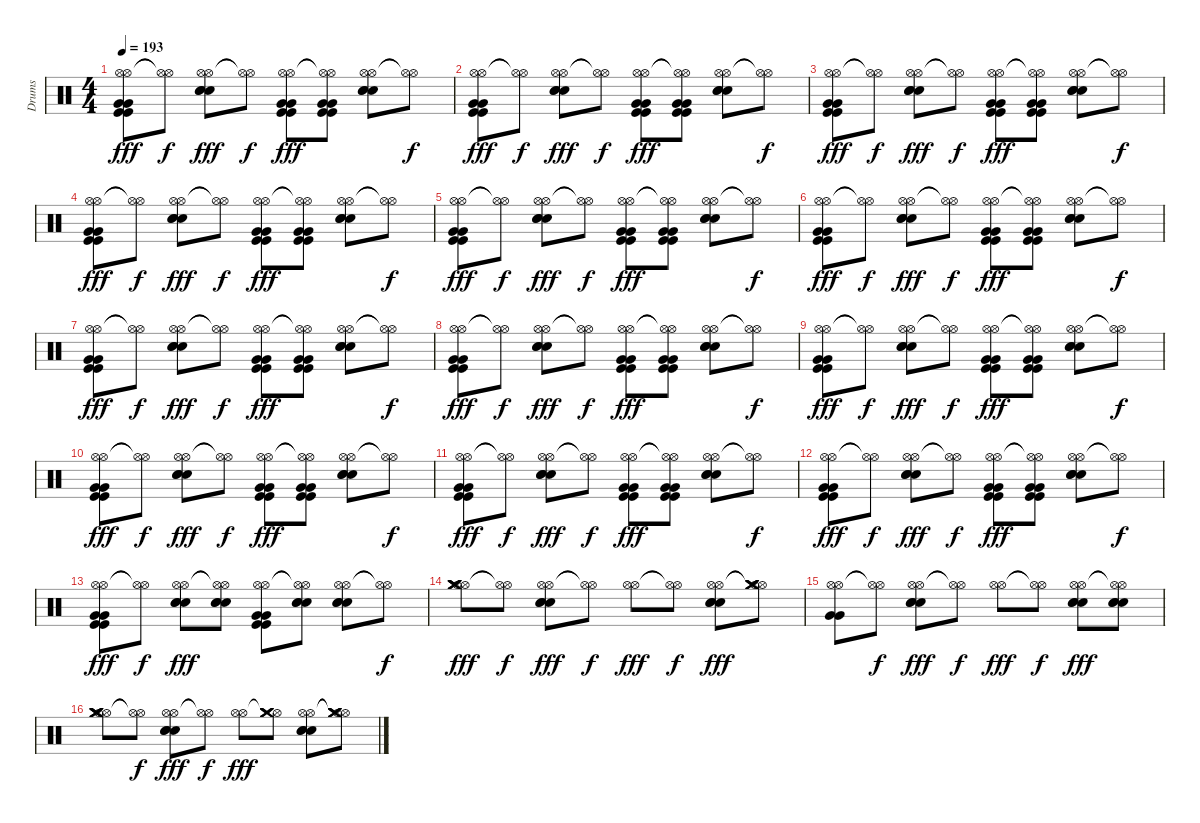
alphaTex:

\track ("Drums" "Drums") {instrument percussion}
\staff {score}
\articulation defaults
\ts (4 4)
\tempo 193
\clef neutral
\ks c
("Hi-Hat (open)" "Hi-Hat (open)" "Kick (hit)" "Kick (hit)" "Very Low Tom (hit)" "Very Low Tom (hit)").8{dy fff} ("Hi-Hat (open)"{t} "Hi-Hat (open)"{t}).8{dy f} ("Hi-Hat (open)" "Hi-Hat (open)" "Snare (hit) 2" "Snare (hit) 2" "Snare (hit) 2").8{dy fff} ("Hi-Hat (open)"{t} "Hi-Hat (open)"{t}).8{dy f} ("Hi-Hat (open)" "Hi-Hat (open)" "Kick (hit)" "Kick (hit)" "Very Low Tom (hit)" "Very Low Tom (hit)").8{dy fff} ("Hi-Hat (open)"{t} "Hi-Hat (open)"{t} "Kick (hit)" "Kick (hit)" "Very Low Tom (hit)" "Very Low Tom (hit)").8 ("Hi-Hat (open)" "Hi-Hat (open)" "Snare (hit) 2" "Snare (hit) 2" "Snare (hit) 2").8 ("Hi-Hat (open)"{t} "Hi-Hat (open)"{t}).8{dy f} |
("Hi-Hat (open)" "Hi-Hat (open)" "Kick (hit)" "Kick (hit)" "Very Low Tom (hit)" "Very Low Tom (hit)").8{dy fff} ("Hi-Hat (open)"{t} "Hi-Hat (open)"{t}).8{dy f} ("Hi-Hat (open)" "Hi-Hat (open)" "Snare (hit) 2" "Snare (hit) 2" "Snare (hit) 2").8{dy fff} ("Hi-Hat (open)"{t} "Hi-Hat (open)"{t}).8{dy f} ("Hi-Hat (open)" "Hi-Hat (open)" "Kick (hit)" "Kick (hit)" "Very Low Tom (hit)" "Very Low Tom (hit)").8{dy fff} ("Hi-Hat (open)"{t} "Hi-Hat (open)"{t} "Kick (hit)" "Kick (hit)" "Very Low Tom (hit)" "Very Low Tom (hit)").8 ("Hi-Hat (open)" "Hi-Hat (open)" "Snare (hit) 2" "Snare (hit) 2" "Snare (hit) 2").8 ("Hi-Hat (open)"{t} "Hi-Hat (open)"{t}).8{dy f} |
("Hi-Hat (open)" "Hi-Hat (open)" "Kick (hit)" "Kick (hit)" "Very Low Tom (hit)" "Very Low Tom (hit)").8{dy fff} ("Hi-Hat (open)"{t} "Hi-Hat (open)"{t}).8{dy f} ("Hi-Hat (open)" "Hi-Hat (open)" "Snare (hit) 2" "Snare (hit) 2" "Snare (hit) 2").8{dy fff} ("Hi-Hat (open)"{t} "Hi-Hat (open)"{t}).8{dy f} ("Hi-Hat (open)" "Hi-Hat (open)" "Kick (hit)" "Kick (hit)" "Very Low Tom (hit)" "Very Low Tom (hit)").8{dy fff} ("Hi-Hat (open)"{t} "Hi-Hat (open)"{t} "Kick (hit)" "Kick (hit)" "Very Low Tom (hit)" "Very Low Tom (hit)").8 ("Hi-Hat (open)" "Hi-Hat (open)" "Snare (hit) 2" "Snare (hit) 2" "Snare (hit) 2").8 ("Hi-Hat (open)"{t} "Hi-Hat (open)"{t}).8{dy f} |
("Hi-Hat (open)" "Hi-Hat (open)" "Kick (hit)" "Kick (hit)" "Very Low Tom (hit)" "Very Low Tom (hit)").8{dy fff} ("Hi-Hat (open)"{t} "Hi-Hat (open)"{t}).8{dy f} ("Hi-Hat (open)" "Hi-Hat (open)" "Snare (hit) 2" "Snare (hit) 2" "Snare (hit) 2").8{dy fff} ("Hi-Hat (open)"{t} "Hi-Hat (open)"{t}).8{dy f} ("Hi-Hat (open)" "Hi-Hat (open)" "Kick (hit)" "Kick (hit)" "Very Low Tom (hit)" "Very Low Tom (hit)").8{dy fff} ("Hi-Hat (open)"{t} "Hi-Hat (open)"{t} "Kick (hit)" "Kick (hit)" "Very Low Tom (hit)" "Very Low Tom (hit)").8 ("Hi-Hat (open)" "Hi-Hat (open)" "Snare (hit) 2" "Snare (hit) 2" "Snare (hit) 2").8 ("Hi-Hat (open)"{t} "Hi-Hat (open)"{t}).8{dy f} |
("Hi-Hat (open)" "Hi-Hat (open)" "Kick (hit)" "Kick (hit)" "Very Low Tom (hit)" "Very Low Tom (hit)").8{dy fff} ("Hi-Hat (open)"{t} "Hi-Hat (open)"{t}).8{dy f} ("Hi-Hat (open)" "Hi-Hat (open)" "Snare (hit) 2" "Snare (hit) 2" "Snare (hit) 2").8{dy fff} ("Hi-Hat (open)"{t} "Hi-Hat (open)"{t}).8{dy f} ("Hi-Hat (open)" "Hi-Hat (open)" "Kick (hit)" "Kick (hit)" "Very Low Tom (hit)" "Very Low Tom (hit)").8{dy fff} ("Hi-Hat (open)"{t} "Hi-Hat (open)"{t} "Kick (hit)" "Kick (hit)" "Very Low Tom (hit)" "Very Low Tom (hit)").8 ("Hi-Hat (open)" "Hi-Hat (open)" "Snare (hit) 2" "Snare (hit) 2" "Snare (hit) 2").8 ("Hi-Hat (open)"{t} "Hi-Hat (open)"{t}).8{dy f} |
("Hi-Hat (open)" "Hi-Hat (open)" "Kick (hit)" "Kick (hit)" "Very Low Tom (hit)" "Very Low Tom (hit)").8{dy fff} ("Hi-Hat (open)"{t} "Hi-Hat (open)"{t}).8{dy f} ("Hi-Hat (open)" "Hi-Hat (open)" "Snare (hit) 2" "Snare (hit) 2" "Snare (hit) 2").8{dy fff} ("Hi-Hat (open)"{t} "Hi-Hat (open)"{t}).8{dy f} ("Hi-Hat (open)" "Hi-Hat (open)" "Kick (hit)" "Kick (hit)" "Very Low Tom (hit)" "Very Low Tom (hit)").8{dy fff} ("Hi-Hat (open)"{t} "Hi-Hat (open)"{t} "Kick (hit)" "Kick (hit)" "Very Low Tom (hit)" "Very Low Tom (hit)").8 ("Hi-Hat (open)" "Hi-Hat (open)" "Snare (hit) 2" "Snare (hit) 2" "Snare (hit) 2").8 ("Hi-Hat (open)"{t} "Hi-Hat (open)"{t}).8{dy f} |
("Hi-Hat (open)" "Hi-Hat (open)" "Kick (hit)" "Kick (hit)" "Very Low Tom (hit)" "Very Low Tom (hit)").8{dy fff} ("Hi-Hat (open)"{t} "Hi-Hat (open)"{t}).8{dy f} ("Hi-Hat (open)" "Hi-Hat (open)" "Snare (hit) 2" "Snare (hit) 2" "Snare (hit) 2").8{dy fff} ("Hi-Hat (open)"{t} "Hi-Hat (open)"{t}).8{dy f} ("Hi-Hat (open)" "Hi-Hat (open)" "Kick (hit)" "Kick (hit)" "Very Low Tom (hit)" "Very Low Tom (hit)").8{dy fff} ("Hi-Hat (open)"{t} "Hi-Hat (open)"{t} "Kick (hit)" "Kick (hit)" "Very Low Tom (hit)" "Very Low Tom (hit)").8 ("Hi-Hat (open)" "Hi-Hat (open)" "Snare (hit) 2" "Snare (hit) 2" "Snare (hit) 2").8 ("Hi-Hat (open)"{t} "Hi-Hat (open)"{t}).8{dy f} |
("Hi-Hat (open)" "Hi-Hat (open)" "Kick (hit)" "Kick (hit)" "Very Low Tom (hit)" "Very Low Tom (hit)").8{dy fff} ("Hi-Hat (open)"{t} "Hi-Hat (open)"{t}).8{dy f} ("Hi-Hat (open)" "Hi-Hat (open)" "Snare (hit) 2" "Snare (hit) 2" "Snare (hit) 2").8{dy fff} ("Hi-Hat (open)"{t} "Hi-Hat (open)"{t}).8{dy f} ("Hi-Hat (open)" "Hi-Hat (open)" "Kick (hit)" "Kick (hit)" "Very Low Tom (hit)" "Very Low Tom (hit)").8{dy fff} ("Hi-Hat (open)"{t} "Hi-Hat (open)"{t} "Kick (hit)" "Kick (hit)" "Very Low Tom (hit)" "Very Low Tom (hit)").8 ("Hi-Hat (open)" "Hi-Hat (open)" "Snare (hit) 2" "Snare (hit) 2" "Snare (hit) 2").8 ("Hi-Hat (open)"{t} "Hi-Hat (open)"{t}).8{dy f} |
("Hi-Hat (open)" "Hi-Hat (open)" "Kick (hit)" "Kick (hit)" "Very Low Tom (hit)" "Very Low Tom (hit)").8{dy fff} ("Hi-Hat (open)"{t} "Hi-Hat (open)"{t}).8{dy f} ("Hi-Hat (open)" "Hi-Hat (open)" "Snare (hit) 2" "Snare (hit) 2" "Snare (hit) 2").8{dy fff} ("Hi-Hat (open)"{t} "Hi-Hat (open)"{t}).8{dy f} ("Hi-Hat (open)" "Hi-Hat (open)" "Kick (hit)" "Kick (hit)" "Very Low Tom (hit)" "Very Low Tom (hit)").8{dy fff} ("Hi-Hat (open)"{t} "Hi-Hat (open)"{t} "Kick (hit)" "Kick (hit)" "Very Low Tom (hit)" "Very Low Tom (hit)").8 ("Hi-Hat (open)" "Hi-Hat (open)" "Snare (hit) 2" "Snare (hit) 2" "Snare (hit) 2").8 ("Hi-Hat (open)"{t} "Hi-Hat (open)"{t}).8{dy f} |
("Hi-Hat (open)" "Hi-Hat (open)" "Kick (hit)" "Kick (hit)" "Very Low Tom (hit)" "Very Low Tom (hit)").8{dy fff} ("Hi-Hat (open)"{t} "Hi-Hat (open)"{t}).8{dy f} ("Hi-Hat (open)" "Hi-Hat (open)" "Snare (hit) 2" "Snare (hit) 2" "Snare (hit) 2").8{dy fff} ("Hi-Hat (open)"{t} "Hi-Hat (open)"{t}).8{dy f} ("Hi-Hat (open)" "Hi-Hat (open)" "Kick (hit)" "Kick (hit)" "Very Low Tom (hit)" "Very Low Tom (hit)").8{dy fff} ("Hi-Hat (open)"{t} "Hi-Hat (open)"{t} "Kick (hit)" "Kick (hit)" "Very Low Tom (hit)" "Very Low Tom (hit)").8 ("Hi-Hat (open)" "Hi-Hat (open)" "Snare (hit) 2" "Snare (hit) 2" "Snare (hit) 2").8 ("Hi-Hat (open)"{t} "Hi-Hat (open)"{t}).8{dy f} |
("Hi-Hat (open)" "Hi-Hat (open)" "Kick (hit)" "Kick (hit)" "Very Low Tom (hit)" "Very Low Tom (hit)").8{dy fff} ("Hi-Hat (open)"{t} "Hi-Hat (open)"{t}).8{dy f} ("Hi-Hat (open)" "Hi-Hat (open)" "Snare (hit) 2" "Snare (hit) 2" "Snare (hit) 2").8{dy fff} ("Hi-Hat (open)"{t} "Hi-Hat (open)"{t}).8{dy f} ("Hi-Hat (open)" "Hi-Hat (open)" "Kick (hit)" "Kick (hit)" "Very Low Tom (hit)" "Very Low Tom (hit)").8{dy fff} ("Hi-Hat (open)"{t} "Hi-Hat (open)"{t} "Kick (hit)" "Kick (hit)" "Very Low Tom (hit)" "Very Low Tom (hit)").8 ("Hi-Hat (open)" "Hi-Hat (open)" "Snare (hit) 2" "Snare (hit) 2" "Snare (hit) 2").8 ("Hi-Hat (open)"{t} "Hi-Hat (open)"{t}).8{dy f} |
("Hi-Hat (open)" "Hi-Hat (open)" "Kick (hit)" "Kick (hit)" "Very Low Tom (hit)" "Very Low Tom (hit)").8{dy fff} ("Hi-Hat (open)"{t} "Hi-Hat (open)"{t}).8{dy f} ("Hi-Hat (open)" "Hi-Hat (open)" "Snare (hit) 2" "Snare (hit) 2" "Snare (hit) 2").8{dy fff} ("Hi-Hat (open)"{t} "Hi-Hat (open)"{t}).8{dy f} ("Hi-Hat (open)" "Hi-Hat (open)" "Kick (hit)" "Kick (hit)" "Very Low Tom (hit)" "Very Low Tom (hit)").8{dy fff} ("Hi-Hat (open)"{t} "Hi-Hat (open)"{t} "Kick (hit)" "Kick (hit)" "Very Low Tom (hit)" "Very Low Tom (hit)").8 ("Hi-Hat (open)" "Hi-Hat (open)" "Snare (hit) 2" "Snare (hit) 2" "Snare (hit) 2").8 ("Hi-Hat (open)"{t} "Hi-Hat (open)"{t}).8{dy f} |
("Hi-Hat (open)" "Hi-Hat (open)" "Kick (hit)" "Kick (hit)" "Very Low Tom (hit)" "Very Low Tom (hit)").8{dy fff} ("Hi-Hat (open)"{t} "Hi-Hat (open)"{t}).8{dy f} ("Hi-Hat (open)" "Hi-Hat (open)" "Snare (hit) 2" "Snare (hit) 2" "Snare (hit) 2").8{dy fff} ("Hi-Hat (open)"{t} "Hi-Hat (open)"{t} "Snare (hit) 2" "Snare (hit) 2" "Snare (hit) 2").8 ("Hi-Hat (open)" "Hi-Hat (open)" "Kick (hit)" "Kick (hit)" "Very Low Tom (hit)" "Very Low Tom (hit)").8 ("Hi-Hat (open)"{t} "Hi-Hat (open)"{t} "Snare (hit) 2" "Snare (hit) 2" "Snare (hit) 2").8 ("Hi-Hat (open)" "Hi-Hat (open)" "Snare (hit) 2" "Snare (hit) 2" "Snare (hit) 2").8 ("Hi-Hat (open)"{t} "Hi-Hat (open)"{t}).8{dy f} |
("Hi-Hat (open)" "Hi-Hat (open)" "Crash medium (hit)" "Crash medium (hit)" "Crash medium (hit)" "Crash medium (hit)").8{dy fff} ("Hi-Hat (open)"{t} "Hi-Hat (open)"{t}).8{dy f} ("Hi-Hat (open)" "Hi-Hat (open)" "Snare (hit) 2" "Snare (hit) 2" "Snare (hit) 2").8{dy fff} ("Hi-Hat (open)"{t} "Hi-Hat (open)"{t}).8{dy f} ("Hi-Hat (open)" "Hi-Hat (open)").8{dy fff} ("Hi-Hat (open)"{t} "Hi-Hat (open)"{t}).8{dy f} ("Hi-Hat (open)" "Hi-Hat (open)" "Snare (hit) 2" "Snare (hit) 2" "Snare (hit) 2").8{dy fff} ("Hi-Hat (open)"{t} "Hi-Hat (open)"{t} "Crash medium (hit)" "Crash medium (hit)" "Crash medium (hit)").8 |
("Hi-Hat (open)" "Hi-Hat (open)" "Very Low Tom (hit)" "Very Low Tom (hit)").8 ("Hi-Hat (open)"{t} "Hi-Hat (open)"{t}).8{dy f} ("Hi-Hat (open)" "Hi-Hat (open)" "Snare (hit) 2" "Snare (hit) 2" "Snare (hit) 2").8{dy fff} ("Hi-Hat (open)"{t} "Hi-Hat (open)"{t}).8{dy f} ("Hi-Hat (open)" "Hi-Hat (open)").8{dy fff} ("Hi-Hat (open)"{t} "Hi-Hat (open)"{t}).8{dy f} ("Hi-Hat (open)" "Hi-Hat (open)" "Snare (hit) 2" "Snare (hit) 2" "Snare (hit) 2").8{dy fff} ("Hi-Hat (open)"{t} "Hi-Hat (open)"{t} "Snare (hit) 2" "Snare (hit) 2" "Snare (hit) 2").8 |
("Hi-Hat (open)" "Hi-Hat (open)" "Crash medium (hit)" "Crash medium (hit)" "Crash medium (hit)" "Crash medium (hit)").8 ("Hi-Hat (open)"{t} "Hi-Hat (open)"{t}).8{dy f} ("Hi-Hat (open)" "Hi-Hat (open)" "Snare (hit) 2" "Snare (hit) 2" "Snare (hit) 2").8{dy fff} ("Hi-Hat (open)"{t} "Hi-Hat (open)"{t}).8{dy f} ("Hi-Hat (open)" "Hi-Hat (open)").8{dy fff} ("Hi-Hat (open)"{t} "Crash medium (hit)" "Crash medium (hit)" "Crash medium (hit)").8 ("Hi-Hat (open)" "Hi-Hat (open)" "Snare (hit) 2" "Snare (hit) 2" "Snare (hit) 2").8 ("Hi-Hat (open)"{t} "Hi-Hat (open)"{t} "Crash medium (hit)" "Crash medium (hit)" "Crash medium (hit)").8
